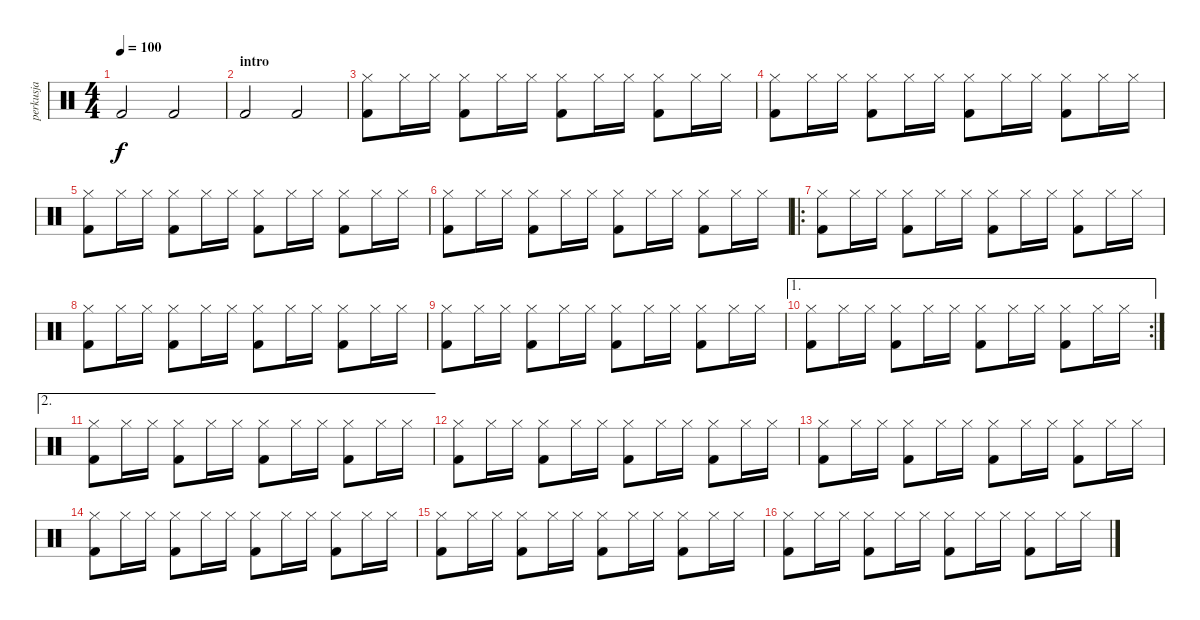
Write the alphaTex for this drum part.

\track ("perkusja" "perkusja") {instrument percussion}
\staff {score}
\articulation defaults
\ts (4 4)
\tempo 100
\clef neutral
\ks c "Kick (hit) 2".2{dy f} "Kick (hit) 2".2
|
\section ("" "intro")
"Kick (hit) 2".2 "Kick (hit) 2".2 |
("Hi-Hat (closed)" "Kick (hit) 2").8 "Hi-Hat (closed)".16 "Hi-Hat (closed)".16 ("Hi-Hat (closed)" "Kick (hit) 2").8 "Hi-Hat (closed)".16 "Hi-Hat (closed)".16 ("Hi-Hat (closed)" "Kick (hit) 2").8 "Hi-Hat (closed)".16 "Hi-Hat (closed)".16 ("Hi-Hat (closed)" "Kick (hit) 2").8 "Hi-Hat (closed)".16 "Hi-Hat (closed)".16 |
("Hi-Hat (closed)" "Kick (hit) 2").8 "Hi-Hat (closed)".16 "Hi-Hat (closed)".16 ("Hi-Hat (closed)" "Kick (hit) 2").8 "Hi-Hat (closed)".16 "Hi-Hat (closed)".16 ("Hi-Hat (closed)" "Kick (hit) 2").8 "Hi-Hat (closed)".16 "Hi-Hat (closed)".16 ("Hi-Hat (closed)" "Kick (hit) 2").8 "Hi-Hat (closed)".16 "Hi-Hat (closed)".16 |
("Hi-Hat (closed)" "Kick (hit) 2").8 "Hi-Hat (closed)".16 "Hi-Hat (closed)".16 ("Hi-Hat (closed)" "Kick (hit) 2").8 "Hi-Hat (closed)".16 "Hi-Hat (closed)".16 ("Hi-Hat (closed)" "Kick (hit) 2").8 "Hi-Hat (closed)".16 "Hi-Hat (closed)".16 ("Hi-Hat (closed)" "Kick (hit) 2").8 "Hi-Hat (closed)".16 "Hi-Hat (closed)".16 |
("Hi-Hat (closed)" "Kick (hit) 2").8 "Hi-Hat (closed)".16 "Hi-Hat (closed)".16 ("Hi-Hat (closed)" "Kick (hit) 2").8 "Hi-Hat (closed)".16 "Hi-Hat (closed)".16 ("Hi-Hat (closed)" "Kick (hit) 2").8 "Hi-Hat (closed)".16 "Hi-Hat (closed)".16 ("Hi-Hat (closed)" "Kick (hit) 2").8 "Hi-Hat (closed)".16 "Hi-Hat (closed)".16 |
\ro
("Hi-Hat (closed)" "Kick (hit) 2").8 "Hi-Hat (closed)".16 "Hi-Hat (closed)".16 ("Hi-Hat (closed)" "Kick (hit) 2").8 "Hi-Hat (closed)".16 "Hi-Hat (closed)".16 ("Hi-Hat (closed)" "Kick (hit) 2").8 "Hi-Hat (closed)".16 "Hi-Hat (closed)".16 ("Hi-Hat (closed)" "Kick (hit) 2").8 "Hi-Hat (closed)".16 "Hi-Hat (closed)".16 |
("Hi-Hat (closed)" "Kick (hit) 2").8 "Hi-Hat (closed)".16 "Hi-Hat (closed)".16 ("Hi-Hat (closed)" "Kick (hit) 2").8 "Hi-Hat (closed)".16 "Hi-Hat (closed)".16 ("Hi-Hat (closed)" "Kick (hit) 2").8 "Hi-Hat (closed)".16 "Hi-Hat (closed)".16 ("Hi-Hat (closed)" "Kick (hit) 2").8 "Hi-Hat (closed)".16 "Hi-Hat (closed)".16 |
("Hi-Hat (closed)" "Kick (hit) 2").8 "Hi-Hat (closed)".16 "Hi-Hat (closed)".16 ("Hi-Hat (closed)" "Kick (hit) 2").8 "Hi-Hat (closed)".16 "Hi-Hat (closed)".16 ("Hi-Hat (closed)" "Kick (hit) 2").8 "Hi-Hat (closed)".16 "Hi-Hat (closed)".16 ("Hi-Hat (closed)" "Kick (hit) 2").8 "Hi-Hat (closed)".16 "Hi-Hat (closed)".16 |
\ae 1
\rc 2
("Hi-Hat (closed)" "Kick (hit) 2").8 "Hi-Hat (closed)".16 "Hi-Hat (closed)".16 ("Hi-Hat (closed)" "Kick (hit) 2").8 "Hi-Hat (closed)".16 "Hi-Hat (closed)".16 ("Hi-Hat (closed)" "Kick (hit) 2").8 "Hi-Hat (closed)".16 "Hi-Hat (closed)".16 ("Hi-Hat (closed)" "Kick (hit) 2").8 "Hi-Hat (closed)".16 "Hi-Hat (closed)".16 |
\ae 2
("Hi-Hat (closed)" "Kick (hit) 2").8 "Hi-Hat (closed)".16 "Hi-Hat (closed)".16 ("Hi-Hat (closed)" "Kick (hit) 2").8 "Hi-Hat (closed)".16 "Hi-Hat (closed)".16 ("Hi-Hat (closed)" "Kick (hit) 2").8 "Hi-Hat (closed)".16 "Hi-Hat (closed)".16 ("Hi-Hat (closed)" "Kick (hit) 2").8 "Hi-Hat (closed)".16 "Hi-Hat (closed)".16 |
("Hi-Hat (closed)" "Kick (hit) 2").8 "Hi-Hat (closed)".16 "Hi-Hat (closed)".16 ("Hi-Hat (closed)" "Kick (hit) 2").8 "Hi-Hat (closed)".16 "Hi-Hat (closed)".16 ("Hi-Hat (closed)" "Kick (hit) 2").8 "Hi-Hat (closed)".16 "Hi-Hat (closed)".16 ("Hi-Hat (closed)" "Kick (hit) 2").8 "Hi-Hat (closed)".16 "Hi-Hat (closed)".16 |
("Hi-Hat (closed)" "Kick (hit) 2").8 "Hi-Hat (closed)".16 "Hi-Hat (closed)".16 ("Hi-Hat (closed)" "Kick (hit) 2").8 "Hi-Hat (closed)".16 "Hi-Hat (closed)".16 ("Hi-Hat (closed)" "Kick (hit) 2").8 "Hi-Hat (closed)".16 "Hi-Hat (closed)".16 ("Hi-Hat (closed)" "Kick (hit) 2").8 "Hi-Hat (closed)".16 "Hi-Hat (closed)".16 |
("Hi-Hat (closed)" "Kick (hit) 2").8 "Hi-Hat (closed)".16 "Hi-Hat (closed)".16 ("Hi-Hat (closed)" "Kick (hit) 2").8 "Hi-Hat (closed)".16 "Hi-Hat (closed)".16 ("Hi-Hat (closed)" "Kick (hit) 2").8 "Hi-Hat (closed)".16 "Hi-Hat (closed)".16 ("Hi-Hat (closed)" "Kick (hit) 2").8 "Hi-Hat (closed)".16 "Hi-Hat (closed)".16 |
("Hi-Hat (closed)" "Kick (hit) 2").8 "Hi-Hat (closed)".16 "Hi-Hat (closed)".16 ("Hi-Hat (closed)" "Kick (hit) 2").8 "Hi-Hat (closed)".16 "Hi-Hat (closed)".16 ("Hi-Hat (closed)" "Kick (hit) 2").8 "Hi-Hat (closed)".16 "Hi-Hat (closed)".16 ("Hi-Hat (closed)" "Kick (hit) 2").8 "Hi-Hat (closed)".16 "Hi-Hat (closed)".16 |
("Hi-Hat (closed)" "Kick (hit) 2").8 "Hi-Hat (closed)".16 "Hi-Hat (closed)".16 ("Hi-Hat (closed)" "Kick (hit) 2").8 "Hi-Hat (closed)".16 "Hi-Hat (closed)".16 ("Hi-Hat (closed)" "Kick (hit) 2").8 "Hi-Hat (closed)".16 "Hi-Hat (closed)".16 ("Hi-Hat (closed)" "Kick (hit) 2").8 "Hi-Hat (closed)".16 "Hi-Hat (closed)".16
